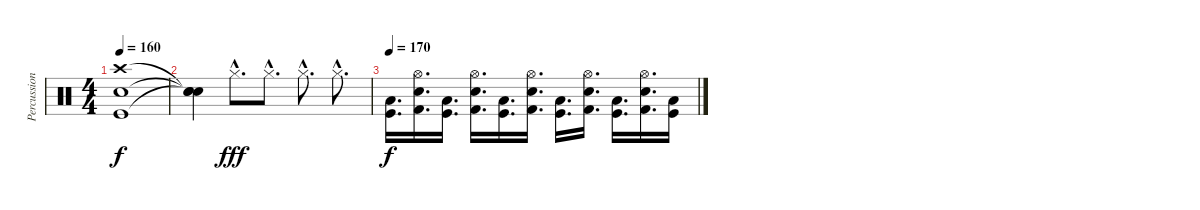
\track ("Percussions" "Percussion") {instrument percussion}
\staff {score}
\articulation defaults
\ts (4 4)
\tempo 160
\clef neutral
\ks c
("Crash high (hit)" "Electric Snare (hit)" "Kick (hit)").1{dy f} |
("Snare (hit)"{t} "Snare (hit)"{t} "Snare (hit)"{t}).4 "Hi-Hat (closed)"{hac}.8{d dy fff} "Hi-Hat (closed)"{hac}.8{d} "Hi-Hat (closed)"{hac}.8{d} "Hi-Hat (closed)"{hac}.8{d} |
\tempo 170
("Low Floor Tom (hit)" "Kick (hit)").16{d dy f} ("Kick (hit) 2" "Hi-Hat (open)" "Electric Snare (hit)").16{d} ("Low Floor Tom (hit)" "Kick (hit)").16{d} ("Electric Snare (hit)" "Hi-Hat (open)" "Kick (hit) 2").16{d} ("Low Floor Tom (hit)" "Kick (hit)").16{d} ("Electric Snare (hit)" "Hi-Hat (open)" "Kick (hit) 2").16{d} ("Low Floor Tom (hit)" "Kick (hit)").16{d} ("Electric Snare (hit)" "Hi-Hat (open)" "Kick (hit) 2").16{d} ("Low Floor Tom (hit)" "Kick (hit)").16{d} ("Electric Snare (hit)" "Hi-Hat (open)" "Kick (hit) 2").16{d} ("Low Floor Tom (hit)" "Kick (hit)").16
